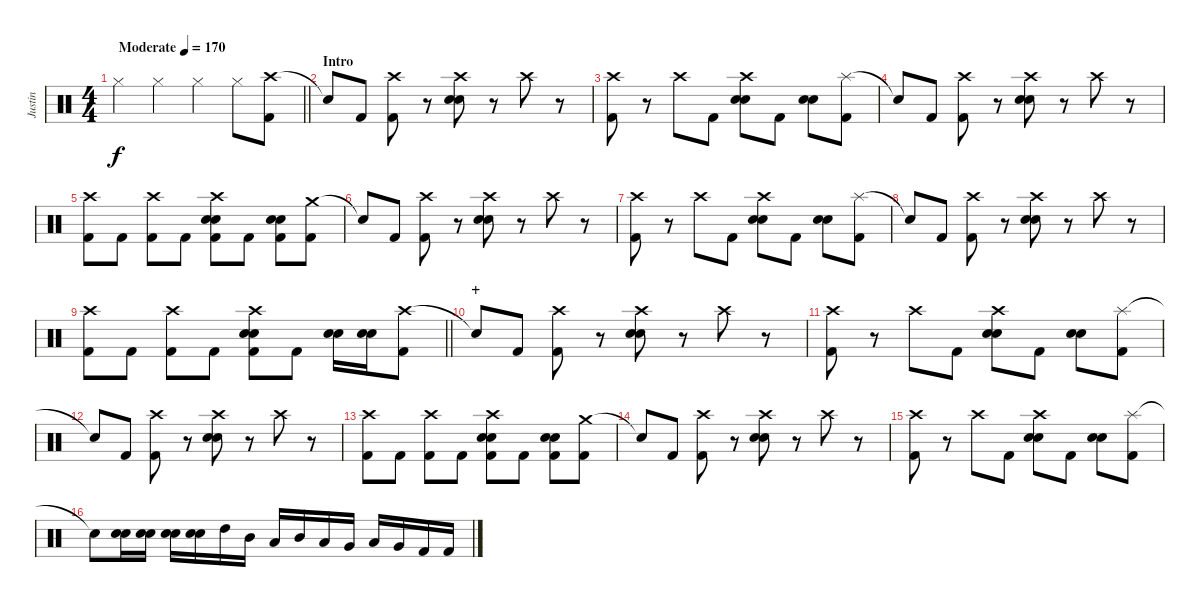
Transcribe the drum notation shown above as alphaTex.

\track ("Justin" "Justin") {instrument percussion}
\staff {score}
\articulation defaults
\ts (4 4)
\tempo (170 "Moderate")
\clef neutral
\barLineRight lightlight
\ks c "Hi-Hat (closed)".4{dy f} "Hi-Hat (closed)".4 "Hi-Hat (closed)".4 "Hi-Hat (closed)".8
("Crash high (hit)" "Kick (hit) 2").8 |
\section ("" "Intro")
"Snare (hit)"{t}.8 "Kick (hit) 2".8 ("Crash high (hit)" "Kick (hit) 2").8 r.8 ("Crash high (hit)" "Electric Snare (hit)" "Snare (hit) 2").8 r.8 "Crash high (hit)".8 r.8 |
("Crash high (hit)" "Kick (hit) 2").8 r.8 "Crash high (hit)".8 "Kick (hit) 2".8 ("Crash high (hit)" "Electric Snare (hit)" "Snare (hit) 2").8 "Kick (hit) 2".8 ("Electric Snare (hit)" "Snare (hit) 2").8 ("Splash (hit)" "Kick (hit) 2").8 |
"Snare (hit)"{t}.8 "Kick (hit) 2".8 ("Crash high (hit)" "Kick (hit) 2").8 r.8 ("Crash high (hit)" "Electric Snare (hit)" "Snare (hit) 2").8 r.8 "Crash high (hit)".8 r.8 |
("Crash high (hit)" "Kick (hit) 2").8 "Kick (hit) 2".8 ("Crash high (hit)" "Kick (hit) 2").8 "Kick (hit) 2".8 ("Crash high (hit)" "Electric Snare (hit)" "Snare (hit) 2" "Kick (hit) 2").8 "Kick (hit) 2".8 ("Electric Snare (hit)" "Snare (hit) 2" "Kick (hit) 2").8 ("Crash medium (hit)" "Kick (hit) 2").8 |
"Snare (hit)"{t}.8 "Kick (hit) 2".8 ("Crash high (hit)" "Kick (hit) 2").8 r.8 ("Crash high (hit)" "Electric Snare (hit)" "Snare (hit) 2").8 r.8 "Crash high (hit)".8 r.8 |
("Crash high (hit)" "Kick (hit) 2").8 r.8 "Crash high (hit)".8 "Kick (hit) 2".8 ("Crash high (hit)" "Electric Snare (hit)" "Snare (hit) 2").8 "Kick (hit) 2".8 ("Electric Snare (hit)" "Snare (hit) 2").8 ("Splash (hit)" "Kick (hit) 2").8 |
"Snare (hit)"{t}.8 "Kick (hit) 2".8 ("Crash high (hit)" "Kick (hit) 2").8 r.8 ("Crash high (hit)" "Electric Snare (hit)" "Snare (hit) 2").8 r.8 "Crash high (hit)".8 r.8 |
\barLineRight lightlight
("Crash high (hit)" "Kick (hit) 2").8 "Kick (hit) 2".8 ("Crash high (hit)" "Kick (hit) 2").8 "Kick (hit) 2".8 ("Crash high (hit)" "Electric Snare (hit)" "Snare (hit) 2" "Kick (hit) 2").8 "Kick (hit) 2".8 ("Electric Snare (hit)" "Snare (hit) 2").16 ("Electric Snare (hit)" "Snare (hit) 2").16 ("Crash high (hit)" "Kick (hit) 2").8 |
\section ("" "+")
"Snare (hit)"{t}.8 "Kick (hit) 2".8 ("Crash high (hit)" "Kick (hit) 2").8 r.8 ("Crash high (hit)" "Electric Snare (hit)" "Snare (hit) 2").8 r.8 "Crash high (hit)".8 r.8 |
("Crash high (hit)" "Kick (hit) 2").8 r.8 "Crash high (hit)".8 "Kick (hit) 2".8 ("Crash high (hit)" "Electric Snare (hit)" "Snare (hit) 2").8 "Kick (hit) 2".8 ("Electric Snare (hit)" "Snare (hit) 2").8 ("Splash (hit)" "Kick (hit) 2").8 |
"Snare (hit)"{t}.8 "Kick (hit) 2".8 ("Crash high (hit)" "Kick (hit) 2").8 r.8 ("Crash high (hit)" "Electric Snare (hit)" "Snare (hit) 2").8 r.8 "Crash high (hit)".8 r.8 |
("Crash high (hit)" "Kick (hit) 2").8 "Kick (hit) 2".8 ("Crash high (hit)" "Kick (hit) 2").8 "Kick (hit) 2".8 ("Crash high (hit)" "Electric Snare (hit)" "Snare (hit) 2" "Kick (hit) 2").8 "Kick (hit) 2".8 ("Electric Snare (hit)" "Snare (hit) 2" "Kick (hit) 2").8 ("Crash medium (hit)" "Kick (hit) 2").8 |
"Snare (hit)"{t}.8 "Kick (hit) 2".8 ("Crash high (hit)" "Kick (hit) 2").8 r.8 ("Crash high (hit)" "Electric Snare (hit)" "Snare (hit) 2").8 r.8 "Crash high (hit)".8 r.8 |
("Crash high (hit)" "Kick (hit) 2").8 r.8 "Crash high (hit)".8 "Kick (hit) 2".8 ("Crash high (hit)" "Electric Snare (hit)" "Snare (hit) 2").8 "Kick (hit) 2".8 ("Electric Snare (hit)" "Snare (hit) 2").8 ("Splash (hit)" "Kick (hit) 2").8 |
"Snare (hit)"{t}.8 ("Electric Snare (hit)" "Snare (hit) 2").16 ("Electric Snare (hit)" "Snare (hit) 2").16 ("Electric Snare (hit)" "Snare (hit) 2").16 ("Electric Snare (hit)" "Snare (hit) 2").16 "High Tom (hit)".16 "Mid Tom (hit)".16 "Low Tom (hit)".16 "Mid Tom (hit)".16 "Low Tom (hit)".16 "Very Low Tom (hit)".16 "Low Tom (hit)".16 "Very Low Tom (hit)".16 "Kick (hit) 2".16 "Kick (hit) 2".16
